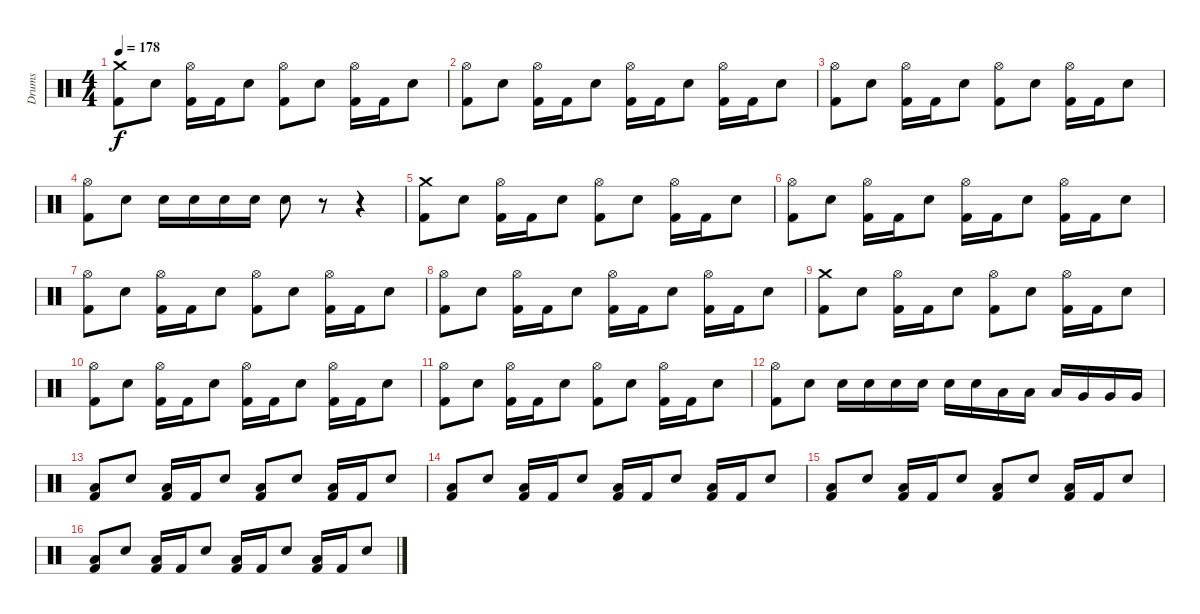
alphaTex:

\track ("Drums" "Drums") {instrument percussion}
\staff {score}
\articulation defaults
\ts (4 4)
\tempo 178
\clef neutral
\ks c
("Crash medium (hit)" "Kick (hit) 2").8{dy f} "Electric Snare (hit)".8 ("Hi-Hat (open)" "Kick (hit) 2").16 "Kick (hit) 2".16 "Electric Snare (hit)".8 ("Hi-Hat (open)" "Kick (hit) 2").8 "Electric Snare (hit)".8 ("Hi-Hat (open)" "Kick (hit) 2").16 "Kick (hit) 2".16 "Electric Snare (hit)".8 |
("Hi-Hat (open)" "Kick (hit) 2").8 "Electric Snare (hit)".8 ("Hi-Hat (open)" "Kick (hit) 2").16 "Kick (hit) 2".16 "Electric Snare (hit)".8 ("Hi-Hat (open)" "Kick (hit) 2").16 "Kick (hit) 2".16 "Electric Snare (hit)".8 ("Hi-Hat (open)" "Kick (hit) 2").16 "Kick (hit) 2".16 "Electric Snare (hit)".8 |
("Hi-Hat (open)" "Kick (hit) 2").8 "Electric Snare (hit)".8 ("Hi-Hat (open)" "Kick (hit) 2").16 "Kick (hit) 2".16 "Electric Snare (hit)".8 ("Hi-Hat (open)" "Kick (hit) 2").8 "Electric Snare (hit)".8 ("Hi-Hat (open)" "Kick (hit) 2").16 "Kick (hit) 2".16 "Electric Snare (hit)".8 |
("Hi-Hat (open)" "Kick (hit) 2").8 "Electric Snare (hit)".8 "Electric Snare (hit)".16 "Electric Snare (hit)".16 "Electric Snare (hit)".16 "Electric Snare (hit)".16 "Electric Snare (hit)".8 r.8 r.4 |
("Crash medium (hit)" "Kick (hit) 2").8 "Electric Snare (hit)".8 ("Hi-Hat (open)" "Kick (hit) 2").16 "Kick (hit) 2".16 "Electric Snare (hit)".8 ("Hi-Hat (open)" "Kick (hit) 2").8 "Electric Snare (hit)".8 ("Hi-Hat (open)" "Kick (hit) 2").16 "Kick (hit) 2".16 "Electric Snare (hit)".8 |
("Hi-Hat (open)" "Kick (hit) 2").8 "Electric Snare (hit)".8 ("Hi-Hat (open)" "Kick (hit) 2").16 "Kick (hit) 2".16 "Electric Snare (hit)".8 ("Hi-Hat (open)" "Kick (hit) 2").16 "Kick (hit) 2".16 "Electric Snare (hit)".8 ("Hi-Hat (open)" "Kick (hit) 2").16 "Kick (hit) 2".16 "Electric Snare (hit)".8 |
("Hi-Hat (open)" "Kick (hit) 2").8 "Electric Snare (hit)".8 ("Hi-Hat (open)" "Kick (hit) 2").16 "Kick (hit) 2".16 "Electric Snare (hit)".8 ("Hi-Hat (open)" "Kick (hit) 2").8 "Electric Snare (hit)".8 ("Hi-Hat (open)" "Kick (hit) 2").16 "Kick (hit) 2".16 "Electric Snare (hit)".8 |
("Hi-Hat (open)" "Kick (hit) 2").8 "Electric Snare (hit)".8 ("Hi-Hat (open)" "Kick (hit) 2").16 "Kick (hit) 2".16 "Electric Snare (hit)".8 ("Hi-Hat (open)" "Kick (hit) 2").16 "Kick (hit) 2".16 "Electric Snare (hit)".8 ("Hi-Hat (open)" "Kick (hit) 2").16 "Kick (hit) 2".16 "Electric Snare (hit)".8 |
("Crash medium (hit)" "Kick (hit) 2").8 "Electric Snare (hit)".8 ("Hi-Hat (open)" "Kick (hit) 2").16 "Kick (hit) 2".16 "Electric Snare (hit)".8 ("Hi-Hat (open)" "Kick (hit) 2").8 "Electric Snare (hit)".8 ("Hi-Hat (open)" "Kick (hit) 2").16 "Kick (hit) 2".16 "Electric Snare (hit)".8 |
("Hi-Hat (open)" "Kick (hit) 2").8 "Electric Snare (hit)".8 ("Hi-Hat (open)" "Kick (hit) 2").16 "Kick (hit) 2".16 "Electric Snare (hit)".8 ("Hi-Hat (open)" "Kick (hit) 2").16 "Kick (hit) 2".16 "Electric Snare (hit)".8 ("Hi-Hat (open)" "Kick (hit) 2").16 "Kick (hit) 2".16 "Electric Snare (hit)".8 |
("Hi-Hat (open)" "Kick (hit) 2").8 "Electric Snare (hit)".8 ("Hi-Hat (open)" "Kick (hit) 2").16 "Kick (hit) 2".16 "Electric Snare (hit)".8 ("Hi-Hat (open)" "Kick (hit) 2").8 "Electric Snare (hit)".8 ("Hi-Hat (open)" "Kick (hit) 2").16 "Kick (hit) 2".16 "Electric Snare (hit)".8 |
("Hi-Hat (open)" "Kick (hit) 2").8 "Electric Snare (hit)".8 "Electric Snare (hit)".16 "Electric Snare (hit)".16 "Electric Snare (hit)".16 "Electric Snare (hit)".16 "Electric Snare (hit)".16 "Electric Snare (hit)".16 "Low Tom (hit)".16 "Low Tom (hit)".16 "Low Tom (hit)".16 "Very Low Tom (hit)".16 "Very Low Tom (hit)".16 "Very Low Tom (hit)".16 |
("Low Floor Tom (hit)" "Kick (hit) 2").8 "Electric Snare (hit)".8 ("Low Floor Tom (hit)" "Kick (hit) 2").16 "Kick (hit) 2".16 "Electric Snare (hit)".8 ("Low Floor Tom (hit)" "Kick (hit) 2").8 "Electric Snare (hit)".8 ("Low Floor Tom (hit)" "Kick (hit) 2").16 "Kick (hit) 2".16 "Electric Snare (hit)".8 |
("Low Floor Tom (hit)" "Kick (hit) 2").8 "Electric Snare (hit)".8 ("Low Floor Tom (hit)" "Kick (hit) 2").16 "Kick (hit) 2".16 "Electric Snare (hit)".8 ("Low Floor Tom (hit)" "Kick (hit) 2").16 "Kick (hit) 2".16 "Electric Snare (hit)".8 ("Low Floor Tom (hit)" "Kick (hit) 2").16 "Kick (hit) 2".16 "Electric Snare (hit)".8 |
("Low Floor Tom (hit)" "Kick (hit) 2").8 "Electric Snare (hit)".8 ("Low Floor Tom (hit)" "Kick (hit) 2").16 "Kick (hit) 2".16 "Electric Snare (hit)".8 ("Low Floor Tom (hit)" "Kick (hit) 2").8 "Electric Snare (hit)".8 ("Low Floor Tom (hit)" "Kick (hit) 2").16 "Kick (hit) 2".16 "Electric Snare (hit)".8 |
("Low Floor Tom (hit)" "Kick (hit) 2").8 "Electric Snare (hit)".8 ("Low Floor Tom (hit)" "Kick (hit) 2").16 "Kick (hit) 2".16 "Electric Snare (hit)".8 ("Low Floor Tom (hit)" "Kick (hit) 2").16 "Kick (hit) 2".16 "Electric Snare (hit)".8 ("Low Floor Tom (hit)" "Kick (hit) 2").16 "Kick (hit) 2".16 "Electric Snare (hit)".8
